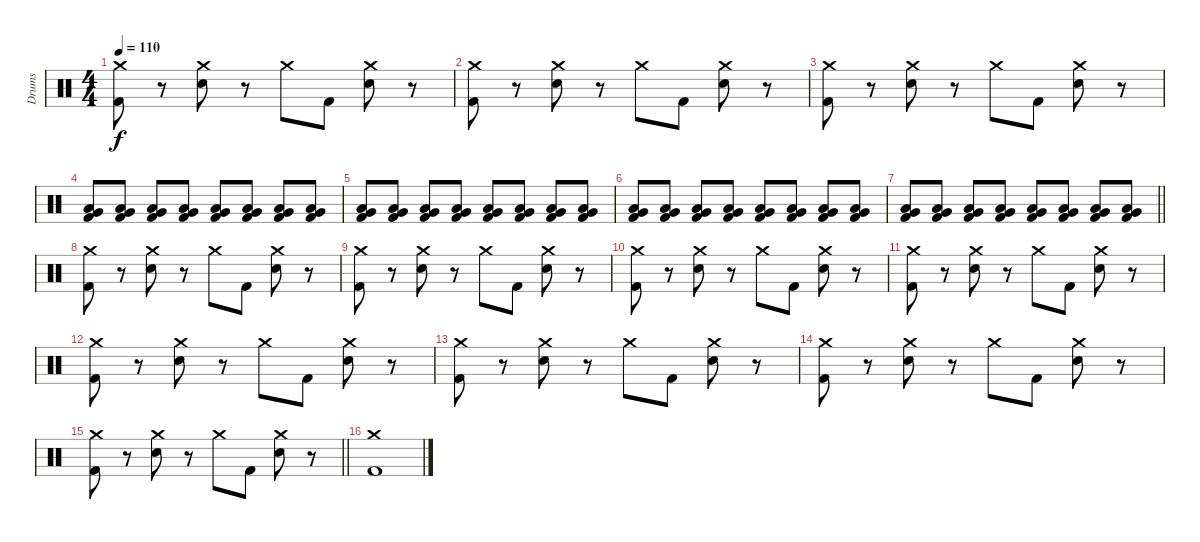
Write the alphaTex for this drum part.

\track ("Drums" "Drums") {instrument percussion}
\staff {score}
\articulation defaults
\ts (4 4)
\tempo 110
\clef neutral
\ks c
("Crash medium (hit)" "Kick (hit) 2").8{dy f} r.8 ("Crash medium (hit)" "Electric Snare (hit)").8 r.8 "Crash medium (hit)".8 "Kick (hit) 2".8 ("Crash medium (hit)" "Electric Snare (hit)").8 r.8 |
("Crash medium (hit)" "Kick (hit) 2").8 r.8 ("Crash medium (hit)" "Electric Snare (hit)").8 r.8 "Crash medium (hit)".8 "Kick (hit) 2".8 ("Crash medium (hit)" "Electric Snare (hit)").8 r.8 |
("Crash medium (hit)" "Kick (hit) 2").8 r.8 ("Crash medium (hit)" "Electric Snare (hit)").8 r.8 "Crash medium (hit)".8 "Kick (hit) 2".8 ("Crash medium (hit)" "Electric Snare (hit)").8 r.8 |
("Very Low Tom (hit)" "Low Floor Tom (hit)" "Kick (hit) 2").8 ("Very Low Tom (hit)" "Low Floor Tom (hit)" "Kick (hit) 2").8 ("Very Low Tom (hit)" "Low Floor Tom (hit)" "Kick (hit) 2").8 ("Very Low Tom (hit)" "Low Floor Tom (hit)" "Kick (hit) 2").8 ("Very Low Tom (hit)" "Low Floor Tom (hit)" "Kick (hit) 2").8 ("Very Low Tom (hit)" "Low Floor Tom (hit)" "Kick (hit) 2").8 ("Very Low Tom (hit)" "Low Floor Tom (hit)" "Kick (hit) 2").8 ("Very Low Tom (hit)" "Low Floor Tom (hit)" "Kick (hit) 2").8 |
("Very Low Tom (hit)" "Low Floor Tom (hit)" "Kick (hit) 2").8 ("Very Low Tom (hit)" "Low Floor Tom (hit)" "Kick (hit) 2").8 ("Very Low Tom (hit)" "Low Floor Tom (hit)" "Kick (hit) 2").8 ("Very Low Tom (hit)" "Low Floor Tom (hit)" "Kick (hit) 2").8 ("Very Low Tom (hit)" "Low Floor Tom (hit)" "Kick (hit) 2").8 ("Very Low Tom (hit)" "Low Floor Tom (hit)" "Kick (hit) 2").8 ("Very Low Tom (hit)" "Low Floor Tom (hit)" "Kick (hit) 2").8 ("Very Low Tom (hit)" "Low Floor Tom (hit)" "Kick (hit) 2").8 |
("Very Low Tom (hit)" "Low Floor Tom (hit)" "Kick (hit) 2").8 ("Very Low Tom (hit)" "Low Floor Tom (hit)" "Kick (hit) 2").8 ("Very Low Tom (hit)" "Low Floor Tom (hit)" "Kick (hit) 2").8 ("Very Low Tom (hit)" "Low Floor Tom (hit)" "Kick (hit) 2").8 ("Very Low Tom (hit)" "Low Floor Tom (hit)" "Kick (hit) 2").8 ("Very Low Tom (hit)" "Low Floor Tom (hit)" "Kick (hit) 2").8 ("Very Low Tom (hit)" "Low Floor Tom (hit)" "Kick (hit) 2").8 ("Very Low Tom (hit)" "Low Floor Tom (hit)" "Kick (hit) 2").8 |
\barLineRight lightlight
("Very Low Tom (hit)" "Low Floor Tom (hit)" "Kick (hit) 2").8 ("Very Low Tom (hit)" "Low Floor Tom (hit)" "Kick (hit) 2").8 ("Very Low Tom (hit)" "Low Floor Tom (hit)" "Kick (hit) 2").8 ("Very Low Tom (hit)" "Low Floor Tom (hit)" "Kick (hit) 2").8 ("Very Low Tom (hit)" "Low Floor Tom (hit)" "Kick (hit) 2").8 ("Very Low Tom (hit)" "Low Floor Tom (hit)" "Kick (hit) 2").8 ("Very Low Tom (hit)" "Low Floor Tom (hit)" "Kick (hit) 2").8 ("Very Low Tom (hit)" "Low Floor Tom (hit)" "Kick (hit) 2").8 |
("Crash medium (hit)" "Kick (hit) 2").8 r.8 ("Crash medium (hit)" "Electric Snare (hit)").8 r.8 "Crash medium (hit)".8 "Kick (hit) 2".8 ("Crash medium (hit)" "Electric Snare (hit)").8 r.8 |
("Crash medium (hit)" "Kick (hit) 2").8 r.8 ("Crash medium (hit)" "Electric Snare (hit)").8 r.8 "Crash medium (hit)".8 "Kick (hit) 2".8 ("Crash medium (hit)" "Electric Snare (hit)").8 r.8 |
("Crash medium (hit)" "Kick (hit) 2").8 r.8 ("Crash medium (hit)" "Electric Snare (hit)").8 r.8 "Crash medium (hit)".8 "Kick (hit) 2".8 ("Crash medium (hit)" "Electric Snare (hit)").8 r.8 |
("Crash medium (hit)" "Kick (hit) 2").8 r.8 ("Crash medium (hit)" "Electric Snare (hit)").8 r.8 "Crash medium (hit)".8 "Kick (hit) 2".8 ("Crash medium (hit)" "Electric Snare (hit)").8 r.8 |
("Crash medium (hit)" "Kick (hit) 2").8 r.8 ("Crash medium (hit)" "Electric Snare (hit)").8 r.8 "Crash medium (hit)".8 "Kick (hit) 2".8 ("Crash medium (hit)" "Electric Snare (hit)").8 r.8 |
("Crash medium (hit)" "Kick (hit) 2").8 r.8 ("Crash medium (hit)" "Electric Snare (hit)").8 r.8 "Crash medium (hit)".8 "Kick (hit) 2".8 ("Crash medium (hit)" "Electric Snare (hit)").8 r.8 |
("Crash medium (hit)" "Kick (hit) 2").8 r.8 ("Crash medium (hit)" "Electric Snare (hit)").8 r.8 "Crash medium (hit)".8 "Kick (hit) 2".8 ("Crash medium (hit)" "Electric Snare (hit)").8 r.8 |
\barLineRight lightlight
("Crash medium (hit)" "Kick (hit) 2").8 r.8 ("Crash medium (hit)" "Electric Snare (hit)").8 r.8 "Crash medium (hit)".8 "Kick (hit) 2".8 ("Crash medium (hit)" "Electric Snare (hit)").8 r.8 |
("Crash medium (hit)" "Kick (hit) 2").1
